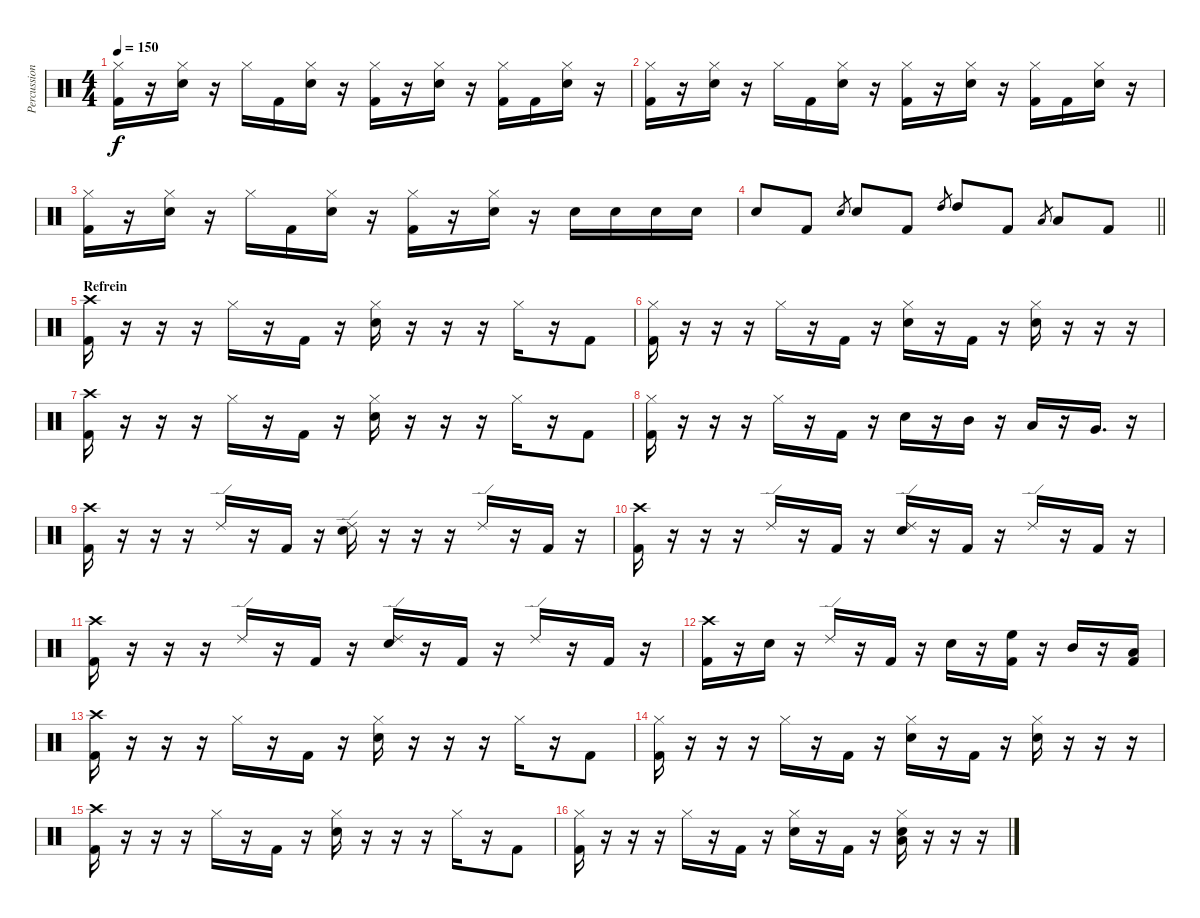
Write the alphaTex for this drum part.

\track ("Percussion" "Percussion") {instrument percussion}
\staff {score}
\articulation defaults
\ts (4 4)
\tempo 150
\clef neutral
\ks c
("Hi-Hat (closed)" "Kick (hit) 2").16{dy f} r.16 ("Hi-Hat (closed)" "Electric Snare (hit)").16 r.16 "Hi-Hat (closed)".16 "Kick (hit) 2".16 ("Hi-Hat (closed)" "Electric Snare (hit)").16 r.16 ("Hi-Hat (closed)" "Kick (hit) 2").16 r.16 ("Hi-Hat (closed)" "Electric Snare (hit)").16 r.16 ("Hi-Hat (closed)" "Kick (hit) 2").16 "Kick (hit) 2".16 ("Hi-Hat (closed)" "Electric Snare (hit)").16 r.16 |
("Hi-Hat (closed)" "Kick (hit) 2").16 r.16 ("Hi-Hat (closed)" "Electric Snare (hit)").16 r.16 "Hi-Hat (closed)".16 "Kick (hit) 2".16 ("Hi-Hat (closed)" "Electric Snare (hit)").16 r.16 ("Hi-Hat (closed)" "Kick (hit) 2").16 r.16 ("Hi-Hat (closed)" "Electric Snare (hit)").16 r.16 ("Hi-Hat (closed)" "Kick (hit) 2").16 "Kick (hit) 2".16 ("Hi-Hat (closed)" "Electric Snare (hit)").16 r.16 |
("Hi-Hat (closed)" "Kick (hit) 2").16 r.16 ("Hi-Hat (closed)" "Electric Snare (hit)").16 r.16 "Hi-Hat (closed)".16 "Kick (hit) 2".16 ("Hi-Hat (closed)" "Electric Snare (hit)").16 r.16 ("Hi-Hat (closed)" "Kick (hit) 2").16 r.16 ("Hi-Hat (closed)" "Electric Snare (hit)").16 r.16 "Electric Snare (hit)".16 "Electric Snare (hit)".16 "Electric Snare (hit)".16 "Electric Snare (hit)".16 |
\barLineRight lightlight "Electric Snare (hit)".8 "Kick (hit) 2".8 "Electric Snare (hit)".8{gr} "Electric Snare (hit)".8 "Kick (hit) 2".8 "High Tom (hit)".8{gr} "High Tom (hit)".8 "Kick (hit) 2".8 "Low Tom (hit)".8{gr} "Low Tom (hit)".8 "Kick (hit) 2".8
|
\section ("" "Refrein")
("Crash high (hit)" "Kick (hit) 2").16 r.16 r.16 r.16 "Hi-Hat (closed)".16 r.16 "Kick (hit) 2".16 r.16 ("Hi-Hat (closed)" "Electric Snare (hit)").16 r.16 r.16 r.16 "Hi-Hat (closed)".16 r.16 "Kick (hit) 2".8 |
("Hi-Hat (closed)" "Kick (hit) 2").16 r.16 r.16 r.16 "Hi-Hat (closed)".16 r.16 "Kick (hit) 2".16 r.16 ("Hi-Hat (closed)" "Electric Snare (hit)").16 r.16 "Kick (hit) 2".16 r.16 ("Hi-Hat (closed)" "Electric Snare (hit)").16 r.16 r.16 r.16 |
("Crash high (hit)" "Kick (hit) 2").16 r.16 r.16 r.16 "Hi-Hat (closed)".16 r.16 "Kick (hit) 2".16 r.16 ("Hi-Hat (closed)" "Electric Snare (hit)").16 r.16 r.16 r.16 "Hi-Hat (closed)".16 r.16 "Kick (hit) 2".8 |
("Hi-Hat (closed)" "Kick (hit) 2").16 r.16 r.16 r.16 "Hi-Hat (closed)".16 r.16 "Kick (hit) 2".16 r.16 "Electric Snare (hit)".16 r.16 "Mid Tom (hit)".16 r.16 "Low Tom (hit)".16 r.16 "Very Low Tom (hit)".16{d} r.16 |
("Crash high (hit)" "Kick (hit) 2").16 r.16 r.16 r.16 "Ride (edge) 2".16 r.16 "Kick (hit) 2".16 r.16 ("Ride (edge) 2" "Electric Snare (hit)").16 r.16 r.16 r.16 "Ride (edge) 2".16 r.16 "Kick (hit) 2".16 r.16 |
("Crash high (hit)" "Kick (hit) 2").16 r.16 r.16 r.16 "Ride (edge) 2".16 r.16 "Kick (hit) 2".16 r.16 ("Ride (edge) 2" "Electric Snare (hit)").16 r.16 "Kick (hit) 2".16 r.16 "Ride (edge) 2".16 r.16 "Kick (hit) 2".16 r.16 |
("Crash high (hit)" "Kick (hit) 2").16 r.16 r.16 r.16 "Ride (edge) 2".16 r.16 "Kick (hit) 2".16 r.16 ("Ride (edge) 2" "Electric Snare (hit)").16 r.16 "Kick (hit) 2".16 r.16 "Ride (edge) 2".16 r.16 "Kick (hit) 2".16 r.16 |
("Crash high (hit)" "Kick (hit) 2").16 r.16 "Electric Snare (hit)".16 r.16 "Ride (edge) 2".16 r.16 "Kick (hit) 2".16 r.16 "Electric Snare (hit)".16 r.16 ("High Floor Tom (hit)" "Kick (hit) 2").16 r.16 "Mid Tom (hit)".16 r.16 ("Low Tom (hit)" "Kick (hit) 2").16 |
("Crash high (hit)" "Kick (hit) 2").16 r.16 r.16 r.16 "Hi-Hat (closed)".16 r.16 "Kick (hit) 2".16 r.16 ("Hi-Hat (closed)" "Electric Snare (hit)").16 r.16 r.16 r.16 "Hi-Hat (closed)".16 r.16 "Kick (hit) 2".8 |
("Hi-Hat (closed)" "Kick (hit) 2").16 r.16 r.16 r.16 "Hi-Hat (closed)".16 r.16 "Kick (hit) 2".16 r.16 ("Hi-Hat (closed)" "Electric Snare (hit)").16 r.16 "Kick (hit) 2".16 r.16 ("Hi-Hat (closed)" "Electric Snare (hit)").16 r.16 r.16 r.16 |
("Crash high (hit)" "Kick (hit) 2").16 r.16 r.16 r.16 "Hi-Hat (closed)".16 r.16 "Kick (hit) 2".16 r.16 ("Hi-Hat (closed)" "Electric Snare (hit)").16 r.16 r.16 r.16 "Hi-Hat (closed)".16 r.16 "Kick (hit) 2".8 |
("Hi-Hat (closed)" "Kick (hit) 2").16 r.16 r.16 r.16 "Hi-Hat (closed)".16 r.16 "Kick (hit) 2".16 r.16 ("Hi-Hat (closed)" "Electric Snare (hit)").16 r.16 "Kick (hit) 2".16 r.16 ("Hi-Hat (closed)" "Electric Snare (hit)" "Low Floor Tom (hit)").16 r.16 r.16 r.16
